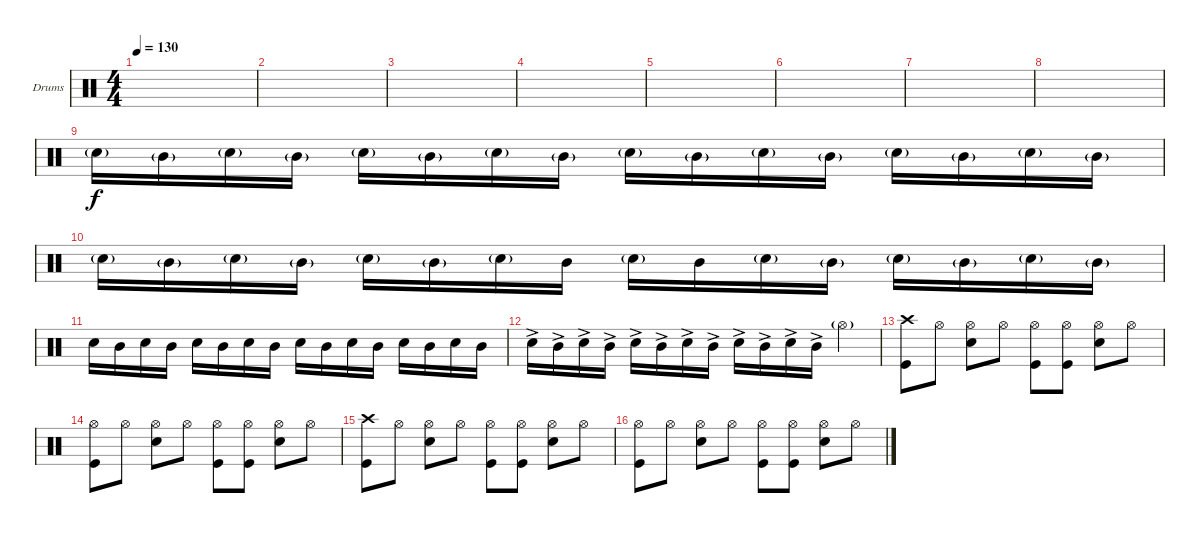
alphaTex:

\bracketExtendMode groupsimilarinstruments
\firstSystemTrackNameOrientation horizontal
\otherSystemsTrackNameOrientation horizontal
\track ("Drumkit" "Drums") {instrument percussion}
\staff {score}
\articulation defaults
\ts (4 4)
\tempo 130
\clef neutral
\ks c
|
|
|
|
|
|
|
|
"Snare (hit) 2"{g}.16 "Mid Tom (hit)"{g}.16 "Snare (hit) 2"{g}.16 "Mid Tom (hit)"{g}.16 "Snare (hit) 2"{g}.16 "Mid Tom (hit)"{g}.16 "Snare (hit) 2"{g}.16 "Mid Tom (hit)"{g}.16 "Snare (hit) 2"{g}.16 "Mid Tom (hit)"{g}.16 "Snare (hit) 2"{g}.16 "Mid Tom (hit)"{g}.16 "Snare (hit) 2"{g}.16 "Mid Tom (hit)"{g}.16 "Snare (hit) 2"{g}.16 "Mid Tom (hit)"{g}.16 |
"Snare (hit) 2"{g}.16 "Mid Tom (hit)"{g}.16 "Snare (hit) 2"{g}.16 "Mid Tom (hit)"{g}.16 "Snare (hit) 2"{g}.16 "Mid Tom (hit)"{g}.16 "Snare (hit) 2"{g}.16 "Mid Tom (hit)".16 "Snare (hit) 2"{g}.16 "Mid Tom (hit)".16 "Snare (hit) 2"{g}.16 "Mid Tom (hit)"{g}.16 "Snare (hit) 2"{g}.16 "Mid Tom (hit)"{g}.16 "Snare (hit) 2"{g}.16 "Mid Tom (hit)"{g}.16 |
"Snare (hit) 2".16 "Mid Tom (hit)".16 "Snare (hit) 2".16 "Mid Tom (hit)".16 "Snare (hit) 2".16 "Mid Tom (hit)".16 "Snare (hit) 2".16 "Mid Tom (hit)".16 "Snare (hit) 2".16 "Mid Tom (hit)".16 "Snare (hit) 2".16 "Mid Tom (hit)".16 "Snare (hit) 2".16 "Mid Tom (hit)".16 "Snare (hit) 2".16 "Mid Tom (hit)".16 |
"Snare (hit) 2"{ac}.16 "Mid Tom (hit)"{ac}.16 "Snare (hit) 2"{ac}.16 "Mid Tom (hit)"{ac}.16 "Snare (hit) 2"{ac}.16 "Mid Tom (hit)"{ac}.16 "Snare (hit) 2"{ac}.16 "Mid Tom (hit)"{ac}.16 "Snare (hit) 2"{ac}.16 "Mid Tom (hit)"{ac}.16 "Snare (hit) 2"{ac}.16 "Mid Tom (hit)"{ac}.16 "Hi-Hat (open)"{g}.4 |
("Kick (hit)" "Crash high (hit)").8 "Hi-Hat (open)".8 ("Snare (hit) 2" "Hi-Hat (open)").8 "Hi-Hat (open)".8 ("Kick (hit)" "Hi-Hat (open)").8 ("Kick (hit)" "Hi-Hat (open)").8 ("Snare (hit) 2" "Hi-Hat (open)").8 "Hi-Hat (open)".8 |
("Kick (hit)" "Hi-Hat (open)").8 "Hi-Hat (open)".8 ("Snare (hit) 2" "Hi-Hat (open)").8 "Hi-Hat (open)".8 ("Kick (hit)" "Hi-Hat (open)").8 ("Kick (hit)" "Hi-Hat (open)").8 ("Snare (hit) 2" "Hi-Hat (open)").8 "Hi-Hat (open)".8 |
("Kick (hit)" "Crash high (hit)").8 "Hi-Hat (open)".8 ("Snare (hit) 2" "Hi-Hat (open)").8 "Hi-Hat (open)".8 ("Kick (hit)" "Hi-Hat (open)").8 ("Kick (hit)" "Hi-Hat (open)").8 ("Snare (hit) 2" "Hi-Hat (open)").8 "Hi-Hat (open)".8 |
("Kick (hit)" "Hi-Hat (open)").8 "Hi-Hat (open)".8 ("Snare (hit) 2" "Hi-Hat (open)").8 "Hi-Hat (open)".8 ("Kick (hit)" "Hi-Hat (open)").8 ("Kick (hit)" "Hi-Hat (open)").8 ("Snare (hit) 2" "Hi-Hat (open)").8 "Hi-Hat (open)".8
